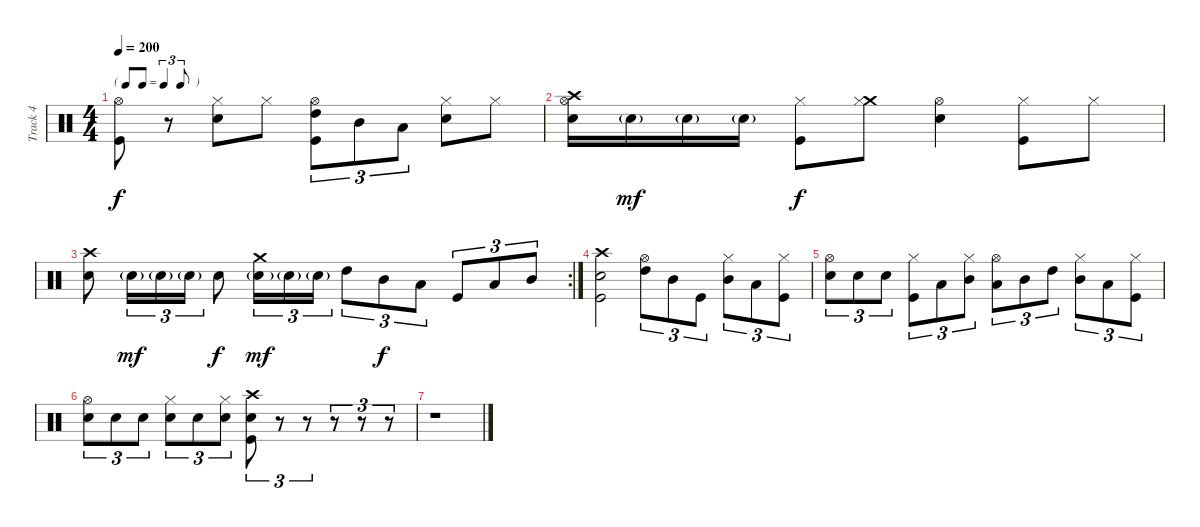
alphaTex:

\track ("Track 4" "Track 4") {instrument percussion}
\staff {score}
\articulation defaults
\ts (4 4)
\tf triplet8th
\tempo 200
\clef neutral
\ks c
("Hi-Hat (open)" "Kick (hit)").8{dy f} r.8 ("Hi-Hat (closed)" "Electric Snare (hit)").8 "Hi-Hat (closed)".8 ("High Tom (hit)" "Hi-Hat (open)" "Kick (hit)").8{tu (3 2)} "Mid Tom (hit)".8{tu (3 2)} "Low Tom (hit)".8{tu (3 2)} ("Hi-Hat (closed)" "Electric Snare (hit)").8 "Hi-Hat (closed)".8 |
("Crash high (hit)" "Hi-Hat (open)" "Electric Snare (hit)").16 "Electric Snare (hit)"{g}.16{dy mf} "Electric Snare (hit)"{g}.16 "Electric Snare (hit)"{g}.16 ("Hi-Hat (closed)" "Kick (hit)").8{dy f} ("Crash medium (hit)" "Hi-Hat (closed)").8 ("Hi-Hat (open)" "Electric Snare (hit)").4 ("Hi-Hat (closed)" "Kick (hit)").8 "Hi-Hat (closed)".8 |
\rc 2
("Crash high (hit)" "Electric Snare (hit)").8 "Electric Snare (hit)"{g}.16{tu (3 2) dy mf} "Electric Snare (hit)"{g}.16{tu (3 2)} "Electric Snare (hit)"{g}.16{tu (3 2)} "Electric Snare (hit)".8{dy f} ("Crash medium (hit)" "Electric Snare (hit)"{g}).16{tu (3 2) dy mf} "Electric Snare (hit)"{g}.16{tu (3 2)} "Electric Snare (hit)"{g}.16{tu (3 2)} "High Tom (hit)".8{tu (3 2)} "Mid Tom (hit)".8{tu (3 2) dy f} "Low Tom (hit)".8{tu (3 2)} "Kick (hit)".8{tu (3 2)} "Low Tom (hit)".8{tu (3 2)} "Mid Tom (hit)".8{tu (3 2)} |
("Crash high (hit)" "Electric Snare (hit)" "Kick (hit)").2 ("High Tom (hit)" "Hi-Hat (open)").8{tu (3 2)} "Mid Tom (hit)".8{tu (3 2)} "Kick (hit)".8{tu (3 2)} ("Mid Tom (hit)" "Hi-Hat (closed)").8{tu (3 2)} "Low Tom (hit)".8{tu (3 2)} ("Hi-Hat (closed)" "Kick (hit)").8{tu (3 2)} |
("Hi-Hat (open)" "Electric Snare (hit)").8{tu (3 2)} "Electric Snare (hit)".8{tu (3 2)} "Electric Snare (hit)".8{tu (3 2)} ("Hi-Hat (closed)" "Kick (hit)").8{tu (3 2)} "Low Tom (hit)".8{tu (3 2)} ("Mid Tom (hit)" "Hi-Hat (closed)").8{tu (3 2)} ("Hi-Hat (open)" "Low Tom (hit)").8{tu (3 2)} "Mid Tom (hit)".8{tu (3 2)} "High Tom (hit)".8{tu (3 2)} ("Mid Tom (hit)" "Hi-Hat (closed)").8{tu (3 2)} "Low Tom (hit)".8{tu (3 2)} ("Hi-Hat (closed)" "Kick (hit)").8{tu (3 2)} |
("Hi-Hat (open)" "Electric Snare (hit)").8{tu (3 2)} "Electric Snare (hit)".8{tu (3 2)} "Electric Snare (hit)".8{tu (3 2)} ("Hi-Hat (closed)" "Electric Snare (hit)").8{tu (3 2)} "Electric Snare (hit)".8{tu (3 2)} ("Hi-Hat (closed)" "Electric Snare (hit)").8{tu (3 2)} ("Crash high (hit)" "Electric Snare (hit)" "Kick (hit)").8{tu (3 2)} r.8{tu (3 2)} r.8{tu (3 2)} r.8{tu (3 2)} r.8{tu (3 2)} r.8{tu (3 2)} |
r.1
